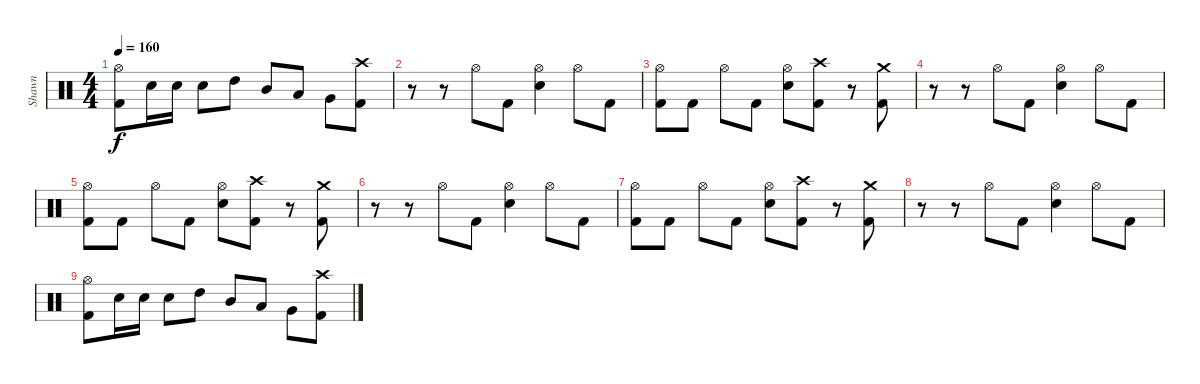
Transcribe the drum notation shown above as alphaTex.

\track ("Shawn" "Shawn") {instrument percussion}
\staff {score}
\articulation defaults
\ts (4 4)
\tempo 160
\clef neutral
\ks c
("Hi-Hat (open)" "Kick (hit) 2").8{dy f} "Snare (hit) 2".16 "Snare (hit) 2".16 "Snare (hit) 2".8 "High Tom (hit)".8 "Mid Tom (hit)".8 "Low Tom (hit)".8 "Very Low Tom (hit)".8 ("Crash high (hit)" "Kick (hit) 2").8 |
r.8 r.8 "Hi-Hat (open)".8 "Kick (hit) 2".8 ("Hi-Hat (open)" "Snare (hit) 2").4 "Hi-Hat (open)".8 "Kick (hit) 2".8 |
("Hi-Hat (open)" "Kick (hit) 2").8 "Kick (hit) 2".8 "Hi-Hat (open)".8 "Kick (hit) 2".8 ("Hi-Hat (open)" "Snare (hit) 2").8 ("Crash high (hit)" "Kick (hit) 2").8 r.8 ("Crash medium (hit)" "Kick (hit) 2").8 |
r.8 r.8 "Hi-Hat (open)".8 "Kick (hit) 2".8 ("Hi-Hat (open)" "Snare (hit) 2").4 "Hi-Hat (open)".8 "Kick (hit) 2".8 |
("Hi-Hat (open)" "Kick (hit) 2").8 "Kick (hit) 2".8 "Hi-Hat (open)".8 "Kick (hit) 2".8 ("Hi-Hat (open)" "Snare (hit) 2").8 ("Crash high (hit)" "Kick (hit) 2").8 r.8 ("Crash medium (hit)" "Kick (hit) 2").8 |
r.8 r.8 "Hi-Hat (open)".8 "Kick (hit) 2".8 ("Hi-Hat (open)" "Snare (hit) 2").4 "Hi-Hat (open)".8 "Kick (hit) 2".8 |
("Hi-Hat (open)" "Kick (hit) 2").8 "Kick (hit) 2".8 "Hi-Hat (open)".8 "Kick (hit) 2".8 ("Hi-Hat (open)" "Snare (hit) 2").8 ("Crash high (hit)" "Kick (hit) 2").8 r.8 ("Crash medium (hit)" "Kick (hit) 2").8 |
r.8 r.8 "Hi-Hat (open)".8 "Kick (hit) 2".8 ("Hi-Hat (open)" "Snare (hit) 2").4 "Hi-Hat (open)".8 "Kick (hit) 2".8 |
("Hi-Hat (open)" "Kick (hit) 2").8 "Snare (hit) 2".16 "Snare (hit) 2".16 "Snare (hit) 2".8 "High Tom (hit)".8 "Mid Tom (hit)".8 "Low Tom (hit)".8 "Very Low Tom (hit)".8 ("Crash high (hit)" "Kick (hit) 2").8
